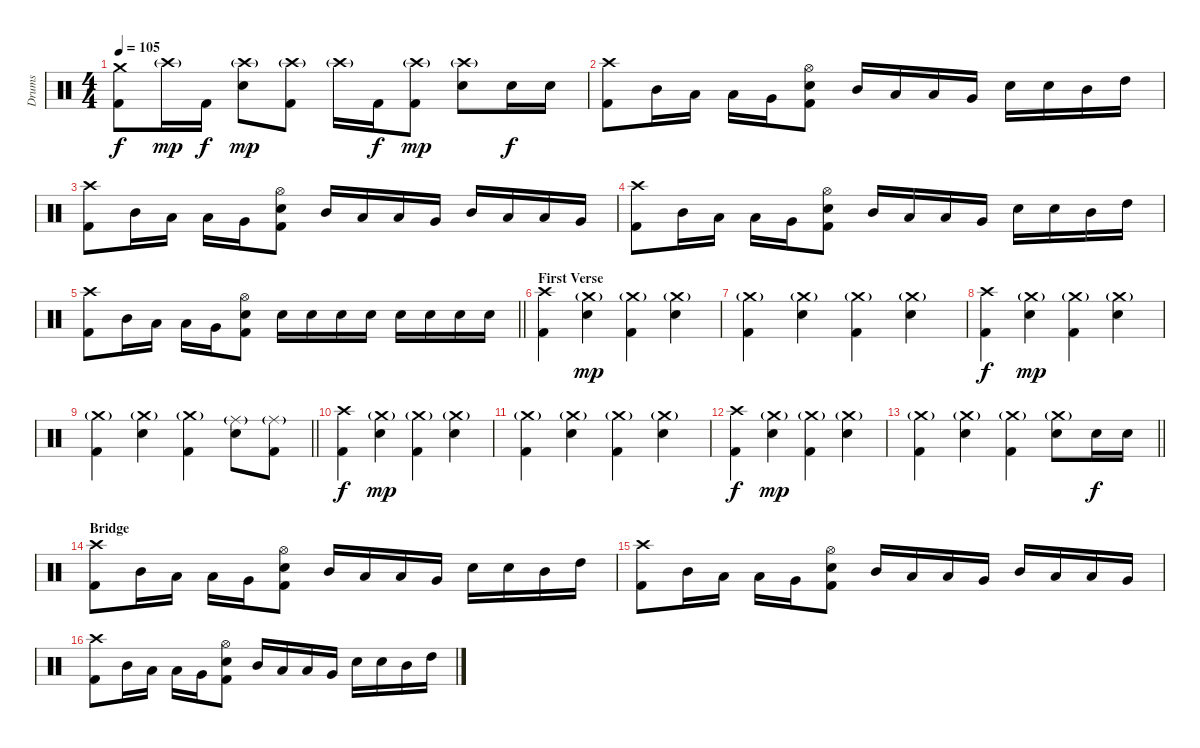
\track ("Drums" "Drums") {instrument percussion}
\staff {score}
\articulation defaults
\ts (4 4)
\tempo 105
\clef neutral
\ks c
("Crash medium (hit)" "Kick (hit) 2").8{dy f} "Crash high (hit)"{g}.16{dy mp} "Kick (hit) 2".16{dy f} ("Crash high (hit)"{g} "Snare (hit) 2").8{dy mp} ("Crash high (hit)"{g} "Kick (hit) 2").8 "Crash high (hit)"{g}.16 "Kick (hit) 2".16{dy f} ("Crash high (hit)"{g} "Kick (hit) 2").8{dy mp} ("Crash high (hit)"{g} "Snare (hit) 2").8 "Snare (hit) 2".16{dy f} "Snare (hit) 2".16 |
("Crash high (hit)" "Kick (hit) 2").8 "Mid Tom (hit)".16 "Low Tom (hit)".16 "Low Tom (hit)".16 "Very Low Tom (hit)".16 ("Hi-Hat (open)" "Snare (hit) 2" "Kick (hit) 2").8 "Mid Tom (hit)".16 "Low Tom (hit)".16 "Low Tom (hit)".16 "Very Low Tom (hit)".16 "Snare (hit) 2".16 "Snare (hit) 2".16 "Mid Tom (hit)".16 "High Tom (hit)".16 |
("Crash high (hit)" "Kick (hit) 2").8 "Mid Tom (hit)".16 "Low Tom (hit)".16 "Low Tom (hit)".16 "Very Low Tom (hit)".16 ("Hi-Hat (open)" "Snare (hit) 2" "Kick (hit) 2").8 "Mid Tom (hit)".16 "Low Tom (hit)".16 "Low Tom (hit)".16 "Very Low Tom (hit)".16 "Mid Tom (hit)".16 "Low Tom (hit)".16 "Low Tom (hit)".16 "Very Low Tom (hit)".16 |
("Crash high (hit)" "Kick (hit) 2").8 "Mid Tom (hit)".16 "Low Tom (hit)".16 "Low Tom (hit)".16 "Very Low Tom (hit)".16 ("Hi-Hat (open)" "Snare (hit) 2" "Kick (hit) 2").8 "Mid Tom (hit)".16 "Low Tom (hit)".16 "Low Tom (hit)".16 "Very Low Tom (hit)".16 "Snare (hit) 2".16 "Snare (hit) 2".16 "Mid Tom (hit)".16 "High Tom (hit)".16 |
\barLineRight lightlight
("Crash high (hit)" "Kick (hit) 2").8 "Mid Tom (hit)".16 "Low Tom (hit)".16 "Low Tom (hit)".16 "Very Low Tom (hit)".16 ("Hi-Hat (open)" "Snare (hit) 2" "Kick (hit) 2").8 "Snare (hit) 2".16 "Snare (hit) 2".16 "Snare (hit) 2".16 "Snare (hit) 2".16 "Snare (hit) 2".16 "Snare (hit) 2".16 "Snare (hit) 2".16 "Snare (hit) 2".16 |
\section ("" "First Verse")
("Crash high (hit)" "Kick (hit) 2").4 ("Crash medium (hit)"{g} "Snare (hit) 2").4{dy mp} ("Crash medium (hit)"{g} "Kick (hit) 2").4 ("Crash medium (hit)"{g} "Snare (hit) 2").4 |
("Crash medium (hit)"{g} "Kick (hit) 2").4 ("Crash medium (hit)"{g} "Snare (hit) 2").4 ("Crash medium (hit)"{g} "Kick (hit) 2").4 ("Crash medium (hit)"{g} "Snare (hit) 2").4 |
("Crash high (hit)" "Kick (hit) 2").4{dy f} ("Crash medium (hit)"{g} "Snare (hit) 2").4{dy mp} ("Crash medium (hit)"{g} "Kick (hit) 2").4 ("Crash medium (hit)"{g} "Snare (hit) 2").4 |
\barLineRight lightlight
("Crash medium (hit)"{g} "Kick (hit) 2").4 ("Crash medium (hit)"{g} "Snare (hit) 2").4 ("Crash medium (hit)"{g} "Kick (hit) 2").4 ("Ride (middle)"{g} "Snare (hit) 2").8 ("Ride (middle)"{g} "Kick (hit) 2").8 |
("Crash high (hit)" "Kick (hit) 2").4{dy f} ("Crash medium (hit)"{g} "Snare (hit) 2").4{dy mp} ("Crash medium (hit)"{g} "Kick (hit) 2").4 ("Crash medium (hit)"{g} "Snare (hit) 2").4 |
("Crash medium (hit)"{g} "Kick (hit) 2").4 ("Crash medium (hit)"{g} "Snare (hit) 2").4 ("Crash medium (hit)"{g} "Kick (hit) 2").4 ("Crash medium (hit)"{g} "Snare (hit) 2").4 |
("Crash high (hit)" "Kick (hit) 2").4{dy f} ("Crash medium (hit)"{g} "Snare (hit) 2").4{dy mp} ("Crash medium (hit)"{g} "Kick (hit) 2").4 ("Crash medium (hit)"{g} "Snare (hit) 2").4 |
\barLineRight lightlight
("Crash medium (hit)"{g} "Kick (hit) 2").4 ("Crash medium (hit)"{g} "Snare (hit) 2").4 ("Crash medium (hit)"{g} "Kick (hit) 2").4 ("Crash medium (hit)"{g} "Snare (hit) 2").8 "Snare (hit) 2".16{dy f} "Snare (hit) 2".16 |
\section ("" "Bridge")
("Crash high (hit)" "Kick (hit) 2").8 "Mid Tom (hit)".16 "Low Tom (hit)".16 "Low Tom (hit)".16 "Very Low Tom (hit)".16 ("Hi-Hat (open)" "Snare (hit) 2" "Kick (hit) 2").8 "Mid Tom (hit)".16 "Low Tom (hit)".16 "Low Tom (hit)".16 "Very Low Tom (hit)".16 "Snare (hit) 2".16 "Snare (hit) 2".16 "Mid Tom (hit)".16 "High Tom (hit)".16 |
("Crash high (hit)" "Kick (hit) 2").8 "Mid Tom (hit)".16 "Low Tom (hit)".16 "Low Tom (hit)".16 "Very Low Tom (hit)".16 ("Hi-Hat (open)" "Snare (hit) 2" "Kick (hit) 2").8 "Mid Tom (hit)".16 "Low Tom (hit)".16 "Low Tom (hit)".16 "Very Low Tom (hit)".16 "Mid Tom (hit)".16 "Low Tom (hit)".16 "Low Tom (hit)".16 "Very Low Tom (hit)".16 |
("Crash high (hit)" "Kick (hit) 2").8 "Mid Tom (hit)".16 "Low Tom (hit)".16 "Low Tom (hit)".16 "Very Low Tom (hit)".16 ("Hi-Hat (open)" "Snare (hit) 2" "Kick (hit) 2").8 "Mid Tom (hit)".16 "Low Tom (hit)".16 "Low Tom (hit)".16 "Very Low Tom (hit)".16 "Snare (hit) 2".16 "Snare (hit) 2".16 "Mid Tom (hit)".16 "High Tom (hit)".16
